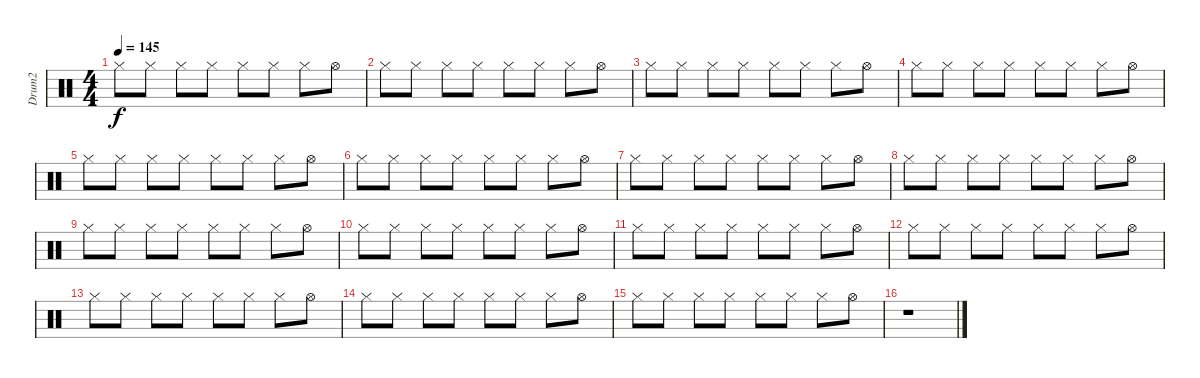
\track ("Drum2" "Drum2") {instrument percussion}
\staff {score}
\articulation defaults
\ts (4 4)
\tempo 145
\clef neutral
\ks c "Hi-Hat (closed)".8{dy f} "Hi-Hat (closed)".8 "Hi-Hat (closed)".8 "Hi-Hat (closed)".8 "Hi-Hat (closed)".8 "Hi-Hat (closed)".8 "Hi-Hat (closed)".8 "Hi-Hat (open)".8
|
"Hi-Hat (closed)".8 "Hi-Hat (closed)".8 "Hi-Hat (closed)".8 "Hi-Hat (closed)".8 "Hi-Hat (closed)".8 "Hi-Hat (closed)".8 "Hi-Hat (closed)".8 "Hi-Hat (open)".8 |
"Hi-Hat (closed)".8 "Hi-Hat (closed)".8 "Hi-Hat (closed)".8 "Hi-Hat (closed)".8 "Hi-Hat (closed)".8 "Hi-Hat (closed)".8 "Hi-Hat (closed)".8 "Hi-Hat (open)".8 |
"Hi-Hat (closed)".8 "Hi-Hat (closed)".8 "Hi-Hat (closed)".8 "Hi-Hat (closed)".8 "Hi-Hat (closed)".8 "Hi-Hat (closed)".8 "Hi-Hat (closed)".8 "Hi-Hat (open)".8 |
"Hi-Hat (closed)".8 "Hi-Hat (closed)".8 "Hi-Hat (closed)".8 "Hi-Hat (closed)".8 "Hi-Hat (closed)".8 "Hi-Hat (closed)".8 "Hi-Hat (closed)".8 "Hi-Hat (open)".8 |
"Hi-Hat (closed)".8 "Hi-Hat (closed)".8 "Hi-Hat (closed)".8 "Hi-Hat (closed)".8 "Hi-Hat (closed)".8 "Hi-Hat (closed)".8 "Hi-Hat (closed)".8 "Hi-Hat (open)".8 |
"Hi-Hat (closed)".8 "Hi-Hat (closed)".8 "Hi-Hat (closed)".8 "Hi-Hat (closed)".8 "Hi-Hat (closed)".8 "Hi-Hat (closed)".8 "Hi-Hat (closed)".8 "Hi-Hat (open)".8 |
"Hi-Hat (closed)".8 "Hi-Hat (closed)".8 "Hi-Hat (closed)".8 "Hi-Hat (closed)".8 "Hi-Hat (closed)".8 "Hi-Hat (closed)".8 "Hi-Hat (closed)".8 "Hi-Hat (open)".8 |
"Hi-Hat (closed)".8 "Hi-Hat (closed)".8 "Hi-Hat (closed)".8 "Hi-Hat (closed)".8 "Hi-Hat (closed)".8 "Hi-Hat (closed)".8 "Hi-Hat (closed)".8 "Hi-Hat (open)".8 |
"Hi-Hat (closed)".8 "Hi-Hat (closed)".8 "Hi-Hat (closed)".8 "Hi-Hat (closed)".8 "Hi-Hat (closed)".8 "Hi-Hat (closed)".8 "Hi-Hat (closed)".8 "Hi-Hat (open)".8 |
"Hi-Hat (closed)".8 "Hi-Hat (closed)".8 "Hi-Hat (closed)".8 "Hi-Hat (closed)".8 "Hi-Hat (closed)".8 "Hi-Hat (closed)".8 "Hi-Hat (closed)".8 "Hi-Hat (open)".8 |
"Hi-Hat (closed)".8 "Hi-Hat (closed)".8 "Hi-Hat (closed)".8 "Hi-Hat (closed)".8 "Hi-Hat (closed)".8 "Hi-Hat (closed)".8 "Hi-Hat (closed)".8 "Hi-Hat (open)".8 |
"Hi-Hat (closed)".8 "Hi-Hat (closed)".8 "Hi-Hat (closed)".8 "Hi-Hat (closed)".8 "Hi-Hat (closed)".8 "Hi-Hat (closed)".8 "Hi-Hat (closed)".8 "Hi-Hat (open)".8 |
"Hi-Hat (closed)".8 "Hi-Hat (closed)".8 "Hi-Hat (closed)".8 "Hi-Hat (closed)".8 "Hi-Hat (closed)".8 "Hi-Hat (closed)".8 "Hi-Hat (closed)".8 "Hi-Hat (open)".8 |
"Hi-Hat (closed)".8 "Hi-Hat (closed)".8 "Hi-Hat (closed)".8 "Hi-Hat (closed)".8 "Hi-Hat (closed)".8 "Hi-Hat (closed)".8 "Hi-Hat (closed)".8 "Hi-Hat (open)".8 |
r.1
